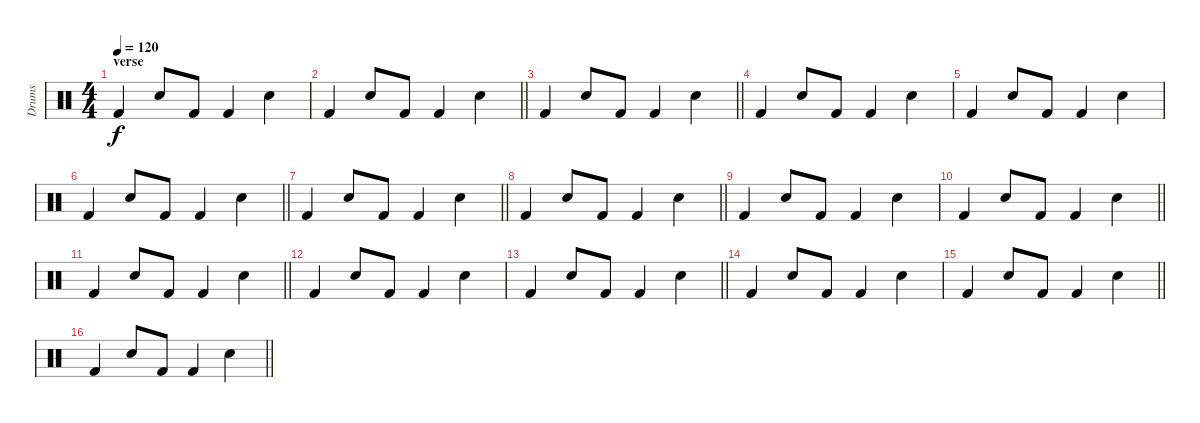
\track ("Drums" "Drums") {instrument percussion}
\staff {score}
\articulation defaults
\ts (4 4)
\section ("" "verse")
\tempo 120
\clef neutral
\ks c "Kick (hit) 2".4{dy f} "Snare (hit) 2".8 "Kick (hit) 2".8 "Kick (hit) 2".4 "Snare (hit) 2".4
|
\barLineRight lightlight "Kick (hit) 2".4 "Snare (hit) 2".8 "Kick (hit) 2".8 "Kick (hit) 2".4 "Snare (hit) 2".4
|
\barLineRight lightlight "Kick (hit) 2".4 "Snare (hit) 2".8 "Kick (hit) 2".8 "Kick (hit) 2".4 "Snare (hit) 2".4
|
"Kick (hit) 2".4 "Snare (hit) 2".8 "Kick (hit) 2".8 "Kick (hit) 2".4 "Snare (hit) 2".4 |
"Kick (hit) 2".4 "Snare (hit) 2".8 "Kick (hit) 2".8 "Kick (hit) 2".4 "Snare (hit) 2".4 |
\barLineRight lightlight "Kick (hit) 2".4 "Snare (hit) 2".8 "Kick (hit) 2".8 "Kick (hit) 2".4 "Snare (hit) 2".4
|
\barLineRight lightlight "Kick (hit) 2".4 "Snare (hit) 2".8 "Kick (hit) 2".8 "Kick (hit) 2".4 "Snare (hit) 2".4
|
\barLineRight lightlight "Kick (hit) 2".4 "Snare (hit) 2".8 "Kick (hit) 2".8 "Kick (hit) 2".4 "Snare (hit) 2".4
|
"Kick (hit) 2".4 "Snare (hit) 2".8 "Kick (hit) 2".8 "Kick (hit) 2".4 "Snare (hit) 2".4 |
\barLineRight lightlight "Kick (hit) 2".4 "Snare (hit) 2".8 "Kick (hit) 2".8 "Kick (hit) 2".4 "Snare (hit) 2".4
|
\barLineRight lightlight "Kick (hit) 2".4 "Snare (hit) 2".8 "Kick (hit) 2".8 "Kick (hit) 2".4 "Snare (hit) 2".4
|
"Kick (hit) 2".4 "Snare (hit) 2".8 "Kick (hit) 2".8 "Kick (hit) 2".4 "Snare (hit) 2".4 |
\barLineRight lightlight "Kick (hit) 2".4 "Snare (hit) 2".8 "Kick (hit) 2".8 "Kick (hit) 2".4 "Snare (hit) 2".4
|
"Kick (hit) 2".4 "Snare (hit) 2".8 "Kick (hit) 2".8 "Kick (hit) 2".4 "Snare (hit) 2".4 |
\barLineRight lightlight "Kick (hit) 2".4 "Snare (hit) 2".8 "Kick (hit) 2".8 "Kick (hit) 2".4 "Snare (hit) 2".4
|
\barLineRight lightlight "Kick (hit) 2".4 "Snare (hit) 2".8 "Kick (hit) 2".8 "Kick (hit) 2".4 "Snare (hit) 2".4
